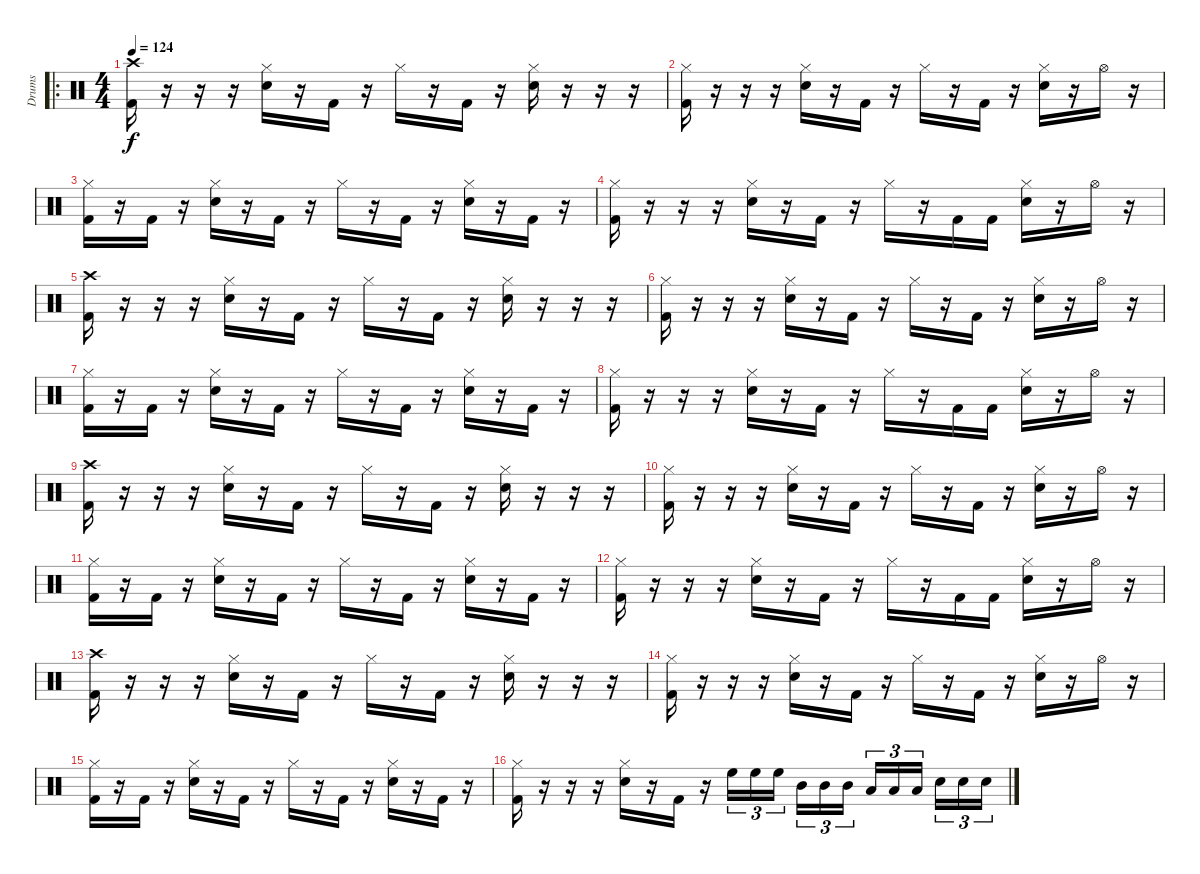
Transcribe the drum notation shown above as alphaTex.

\track ("Drums" "Drums") {instrument percussion}
\staff {score}
\articulation defaults
\ro
\ts (4 4)
\tempo 124
\clef neutral
\ks c
("Crash high (hit)" "Kick (hit) 2").16{dy f} r.16 r.16 r.16 ("Hi-Hat (closed)" "Snare (hit) 2").16 r.16 "Kick (hit) 2".16 r.16 "Hi-Hat (closed)".16 r.16 "Kick (hit) 2".16 r.16 ("Hi-Hat (closed)" "Snare (hit) 2").16 r.16 r.16 r.16 |
("Hi-Hat (closed)" "Kick (hit) 2").16 r.16 r.16 r.16 ("Hi-Hat (closed)" "Snare (hit) 2").16 r.16 "Kick (hit) 2".16 r.16 "Hi-Hat (closed)".16 r.16 "Kick (hit) 2".16 r.16 ("Hi-Hat (closed)" "Snare (hit) 2").16 r.16 "Hi-Hat (open)".16 r.16 |
("Hi-Hat (closed)" "Kick (hit) 2").16 r.16 "Kick (hit) 2".16 r.16 ("Hi-Hat (closed)" "Snare (hit) 2").16 r.16 "Kick (hit) 2".16 r.16 "Hi-Hat (closed)".16 r.16 "Kick (hit) 2".16 r.16 ("Hi-Hat (closed)" "Snare (hit) 2").16 r.16 "Kick (hit) 2".16 r.16 |
("Hi-Hat (closed)" "Kick (hit) 2").16 r.16 r.16 r.16 ("Hi-Hat (closed)" "Snare (hit) 2").16 r.16 "Kick (hit) 2".16 r.16 "Hi-Hat (closed)".16 r.16 "Kick (hit) 2".16 "Kick (hit) 2".16 ("Hi-Hat (closed)" "Snare (hit) 2").16 r.16 "Hi-Hat (open)".16 r.16 |
("Crash high (hit)" "Kick (hit) 2").16 r.16 r.16 r.16 ("Hi-Hat (closed)" "Snare (hit) 2").16 r.16 "Kick (hit) 2".16 r.16 "Hi-Hat (closed)".16 r.16 "Kick (hit) 2".16 r.16 ("Hi-Hat (closed)" "Snare (hit) 2").16 r.16 r.16 r.16 |
("Hi-Hat (closed)" "Kick (hit) 2").16 r.16 r.16 r.16 ("Hi-Hat (closed)" "Snare (hit) 2").16 r.16 "Kick (hit) 2".16 r.16 "Hi-Hat (closed)".16 r.16 "Kick (hit) 2".16 r.16 ("Hi-Hat (closed)" "Snare (hit) 2").16 r.16 "Hi-Hat (open)".16 r.16 |
("Hi-Hat (closed)" "Kick (hit) 2").16 r.16 "Kick (hit) 2".16 r.16 ("Hi-Hat (closed)" "Snare (hit) 2").16 r.16 "Kick (hit) 2".16 r.16 "Hi-Hat (closed)".16 r.16 "Kick (hit) 2".16 r.16 ("Hi-Hat (closed)" "Snare (hit) 2").16 r.16 "Kick (hit) 2".16 r.16 |
("Hi-Hat (closed)" "Kick (hit) 2").16 r.16 r.16 r.16 ("Hi-Hat (closed)" "Snare (hit) 2").16 r.16 "Kick (hit) 2".16 r.16 "Hi-Hat (closed)".16 r.16 "Kick (hit) 2".16 "Kick (hit) 2".16 ("Hi-Hat (closed)" "Snare (hit) 2").16 r.16 "Hi-Hat (open)".16 r.16 |
("Crash high (hit)" "Kick (hit) 2").16 r.16 r.16 r.16 ("Hi-Hat (closed)" "Snare (hit) 2").16 r.16 "Kick (hit) 2".16 r.16 "Hi-Hat (closed)".16 r.16 "Kick (hit) 2".16 r.16 ("Hi-Hat (closed)" "Snare (hit) 2").16 r.16 r.16 r.16 |
("Hi-Hat (closed)" "Kick (hit) 2").16 r.16 r.16 r.16 ("Hi-Hat (closed)" "Snare (hit) 2").16 r.16 "Kick (hit) 2".16 r.16 "Hi-Hat (closed)".16 r.16 "Kick (hit) 2".16 r.16 ("Hi-Hat (closed)" "Snare (hit) 2").16 r.16 "Hi-Hat (open)".16 r.16 |
("Hi-Hat (closed)" "Kick (hit) 2").16 r.16 "Kick (hit) 2".16 r.16 ("Hi-Hat (closed)" "Snare (hit) 2").16 r.16 "Kick (hit) 2".16 r.16 "Hi-Hat (closed)".16 r.16 "Kick (hit) 2".16 r.16 ("Hi-Hat (closed)" "Snare (hit) 2").16 r.16 "Kick (hit) 2".16 r.16 |
("Hi-Hat (closed)" "Kick (hit) 2").16 r.16 r.16 r.16 ("Hi-Hat (closed)" "Snare (hit) 2").16 r.16 "Kick (hit) 2".16 r.16 "Hi-Hat (closed)".16 r.16 "Kick (hit) 2".16 "Kick (hit) 2".16 ("Hi-Hat (closed)" "Snare (hit) 2").16 r.16 "Hi-Hat (open)".16 r.16 |
("Crash high (hit)" "Kick (hit) 2").16 r.16 r.16 r.16 ("Hi-Hat (closed)" "Snare (hit) 2").16 r.16 "Kick (hit) 2".16 r.16 "Hi-Hat (closed)".16 r.16 "Kick (hit) 2".16 r.16 ("Hi-Hat (closed)" "Snare (hit) 2").16 r.16 r.16 r.16 |
("Hi-Hat (closed)" "Kick (hit) 2").16 r.16 r.16 r.16 ("Hi-Hat (closed)" "Snare (hit) 2").16 r.16 "Kick (hit) 2".16 r.16 "Hi-Hat (closed)".16 r.16 "Kick (hit) 2".16 r.16 ("Hi-Hat (closed)" "Snare (hit) 2").16 r.16 "Hi-Hat (open)".16 r.16 |
("Hi-Hat (closed)" "Kick (hit) 2").16 r.16 "Kick (hit) 2".16 r.16 ("Hi-Hat (closed)" "Snare (hit) 2").16 r.16 "Kick (hit) 2".16 r.16 "Hi-Hat (closed)".16 r.16 "Kick (hit) 2".16 r.16 ("Hi-Hat (closed)" "Snare (hit) 2").16 r.16 "Kick (hit) 2".16 r.16 |
("Hi-Hat (closed)" "Kick (hit) 2").16 r.16 r.16 r.16 ("Hi-Hat (closed)" "Snare (hit) 2").16 r.16 "Kick (hit) 2".16 r.16 "High Floor Tom (hit)".16{tu (3 2)} "High Floor Tom (hit)".16{tu (3 2)} "High Floor Tom (hit)".16{tu (3 2)} "Mid Tom (hit)".16{tu (3 2)} "Mid Tom (hit)".16{tu (3 2)} "Mid Tom (hit)".16{tu (3 2)} "Low Tom (hit)".16{tu (3 2)} "Low Tom (hit)".16{tu (3 2)} "Low Tom (hit)".16{tu (3 2)} "Snare (hit) 2".16{tu (3 2)} "Snare (hit) 2".16{tu (3 2)} "Snare (hit) 2".16{tu (3 2)}
